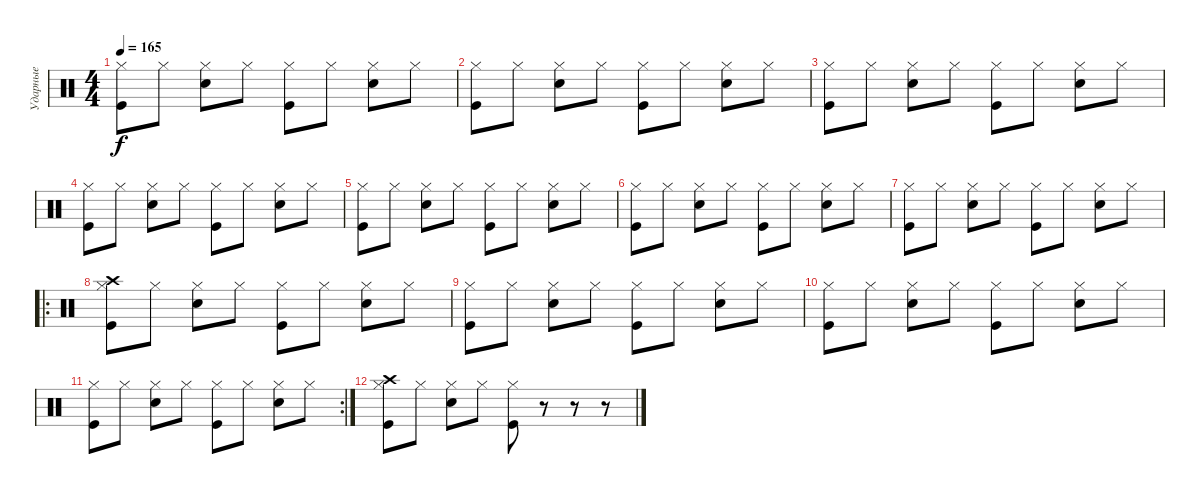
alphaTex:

\track ("Ударные" "Ударные") {instrument percussion}
\staff {score}
\articulation defaults
\ts (4 4)
\tempo 165
\clef neutral
\ks c
("Kick (hit)" "Hi-Hat (closed)").8{dy f} "Hi-Hat (closed)".8 ("Snare (hit) 2" "Hi-Hat (closed)").8 "Hi-Hat (closed)".8 ("Kick (hit)" "Hi-Hat (closed)").8 "Hi-Hat (closed)".8 ("Snare (hit) 2" "Hi-Hat (closed)").8 "Hi-Hat (closed)".8 |
("Kick (hit)" "Hi-Hat (closed)").8 "Hi-Hat (closed)".8 ("Snare (hit) 2" "Hi-Hat (closed)").8 "Hi-Hat (closed)".8 ("Kick (hit)" "Hi-Hat (closed)").8 "Hi-Hat (closed)".8 ("Snare (hit) 2" "Hi-Hat (closed)").8 "Hi-Hat (closed)".8 |
("Kick (hit)" "Hi-Hat (closed)").8 "Hi-Hat (closed)".8 ("Snare (hit) 2" "Hi-Hat (closed)").8 "Hi-Hat (closed)".8 ("Kick (hit)" "Hi-Hat (closed)").8 "Hi-Hat (closed)".8 ("Snare (hit) 2" "Hi-Hat (closed)").8 "Hi-Hat (closed)".8 |
("Kick (hit)" "Hi-Hat (closed)").8 "Hi-Hat (closed)".8 ("Snare (hit) 2" "Hi-Hat (closed)").8 "Hi-Hat (closed)".8 ("Kick (hit)" "Hi-Hat (closed)").8 "Hi-Hat (closed)".8 ("Snare (hit) 2" "Hi-Hat (closed)").8 "Hi-Hat (closed)".8 |
("Kick (hit)" "Hi-Hat (closed)").8 "Hi-Hat (closed)".8 ("Snare (hit) 2" "Hi-Hat (closed)").8 "Hi-Hat (closed)".8 ("Kick (hit)" "Hi-Hat (closed)").8 "Hi-Hat (closed)".8 ("Snare (hit) 2" "Hi-Hat (closed)").8 "Hi-Hat (closed)".8 |
("Kick (hit)" "Hi-Hat (closed)").8 "Hi-Hat (closed)".8 ("Snare (hit) 2" "Hi-Hat (closed)").8 "Hi-Hat (closed)".8 ("Kick (hit)" "Hi-Hat (closed)").8 "Hi-Hat (closed)".8 ("Snare (hit) 2" "Hi-Hat (closed)").8 "Hi-Hat (closed)".8 |
("Kick (hit)" "Hi-Hat (closed)").8 "Hi-Hat (closed)".8 ("Snare (hit) 2" "Hi-Hat (closed)").8 "Hi-Hat (closed)".8 ("Kick (hit)" "Hi-Hat (closed)").8 "Hi-Hat (closed)".8 ("Snare (hit) 2" "Hi-Hat (closed)").8 "Hi-Hat (closed)".8 |
\ro
("Kick (hit)" "Hi-Hat (closed)" "Crash high (hit)").8 "Hi-Hat (closed)".8 ("Snare (hit) 2" "Hi-Hat (closed)").8 "Hi-Hat (closed)".8 ("Kick (hit)" "Hi-Hat (closed)").8 "Hi-Hat (closed)".8 ("Snare (hit) 2" "Hi-Hat (closed)").8 "Hi-Hat (closed)".8 |
("Kick (hit)" "Hi-Hat (closed)").8 "Hi-Hat (closed)".8 ("Snare (hit) 2" "Hi-Hat (closed)").8 "Hi-Hat (closed)".8 ("Kick (hit)" "Hi-Hat (closed)").8 "Hi-Hat (closed)".8 ("Snare (hit) 2" "Hi-Hat (closed)").8 "Hi-Hat (closed)".8 |
("Kick (hit)" "Hi-Hat (closed)").8 "Hi-Hat (closed)".8 ("Snare (hit) 2" "Hi-Hat (closed)").8 "Hi-Hat (closed)".8 ("Kick (hit)" "Hi-Hat (closed)").8 "Hi-Hat (closed)".8 ("Snare (hit) 2" "Hi-Hat (closed)").8 "Hi-Hat (closed)".8 |
\rc 2
("Kick (hit)" "Hi-Hat (closed)").8 "Hi-Hat (closed)".8 ("Snare (hit) 2" "Hi-Hat (closed)").8 "Hi-Hat (closed)".8 ("Kick (hit)" "Hi-Hat (closed)").8 "Hi-Hat (closed)".8 ("Snare (hit) 2" "Hi-Hat (closed)").8 "Hi-Hat (closed)".8 |
("Kick (hit)" "Hi-Hat (closed)" "Crash high (hit)").8 "Hi-Hat (closed)".8 ("Snare (hit) 2" "Hi-Hat (closed)").8 "Hi-Hat (closed)".8 ("Kick (hit)" "Hi-Hat (closed)").8 r.8 r.8 r.8
